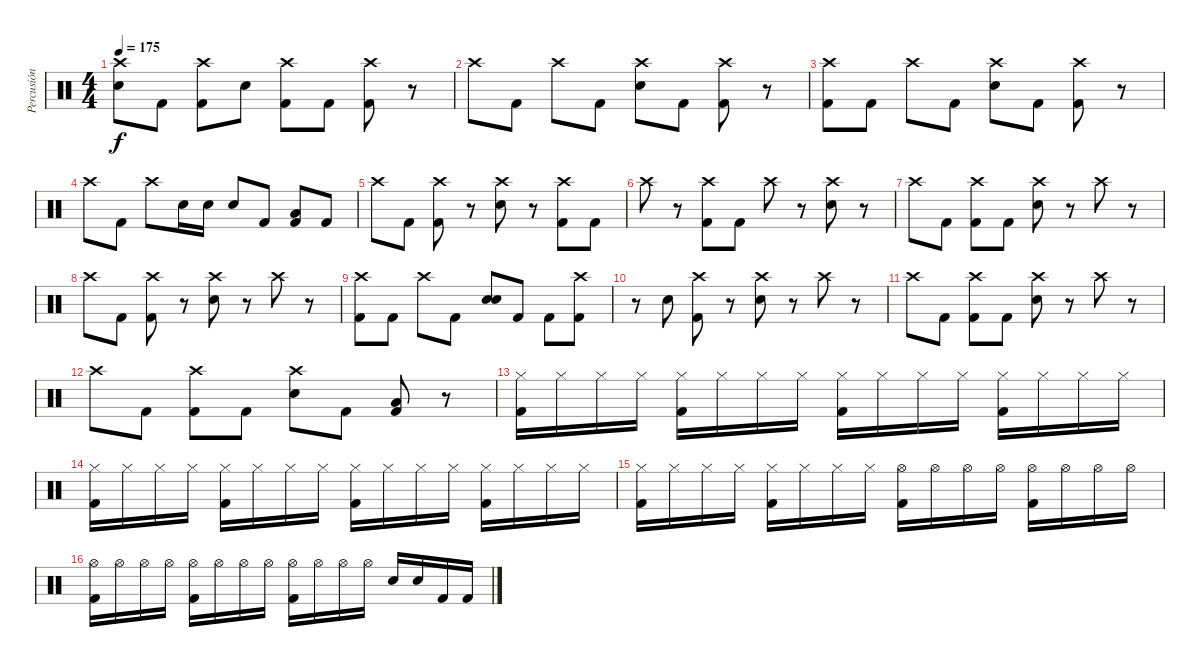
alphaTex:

\track ("Percusión" "Percusión") {instrument percussion}
\staff {score}
\articulation defaults
\ts (4 4)
\tempo 175
\clef neutral
\ks c
("Crash high (hit)" "Electric Snare (hit)").8{dy f} "Kick (hit) 2".8 ("Crash high (hit)" "Kick (hit) 2").8 "Electric Snare (hit)".8 ("Crash high (hit)" "Kick (hit) 2").8 "Kick (hit) 2".8 ("Crash high (hit)" "Kick (hit) 2").8 r.8 |
"Crash high (hit)".8 "Kick (hit) 2".8 "Crash high (hit)".8 "Kick (hit) 2".8 ("Crash high (hit)" "Electric Snare (hit)").8 "Kick (hit) 2".8 ("Crash high (hit)" "Kick (hit) 2").8 r.8 |
("Crash high (hit)" "Kick (hit) 2").8 "Kick (hit) 2".8 "Crash high (hit)".8 "Kick (hit) 2".8 ("Crash high (hit)" "Electric Snare (hit)").8 "Kick (hit) 2".8 ("Crash high (hit)" "Kick (hit) 2").8 r.8 |
"Crash high (hit)".8 "Kick (hit) 2".8 "Crash high (hit)".8 "Electric Snare (hit)".16 "Electric Snare (hit)".16 "Electric Snare (hit)".8 "Kick (hit) 2".8 ("Low Tom (hit)" "Kick (hit) 2").8 "Kick (hit) 2".8 |
"Crash high (hit)".8 "Kick (hit) 2".8 ("Crash high (hit)" "Kick (hit) 2").8 r.8 ("Crash high (hit)" "Electric Snare (hit)").8 r.8 ("Crash high (hit)" "Kick (hit) 2").8 "Kick (hit) 2".8 |
"Crash high (hit)".8 r.8 ("Crash high (hit)" "Kick (hit) 2").8 "Kick (hit) 2".8 "Crash high (hit)".8 r.8 ("Crash high (hit)" "Electric Snare (hit)").8 r.8 |
"Crash high (hit)".8 "Kick (hit) 2".8 ("Crash high (hit)" "Kick (hit) 2").8 "Kick (hit) 2".8 ("Crash high (hit)" "Electric Snare (hit)").8 r.8 "Crash high (hit)".8 r.8 |
"Crash high (hit)".8 "Kick (hit) 2".8 ("Crash high (hit)" "Kick (hit) 2").8 r.8 ("Crash high (hit)" "Electric Snare (hit)").8 r.8 "Crash high (hit)".8 r.8 |
("Crash high (hit)" "Kick (hit) 2").8 "Kick (hit) 2".8 "Crash high (hit)".8 "Kick (hit) 2".8 ("Electric Snare (hit)" "Electric Snare (hit)").8{bu 60} "Kick (hit) 2".8 "Kick (hit) 2".8 ("Crash high (hit)" "Kick (hit) 2").8 |
r.8 "Electric Snare (hit)".8 ("Crash high (hit)" "Kick (hit) 2").8 r.8 ("Crash high (hit)" "Electric Snare (hit)").8 r.8 "Crash high (hit)".8 r.8 |
"Crash high (hit)".8 "Kick (hit) 2".8 ("Crash high (hit)" "Kick (hit) 2").8 "Kick (hit) 2".8 ("Crash high (hit)" "Electric Snare (hit)").8 r.8 "Crash high (hit)".8 r.8 |
"Crash high (hit)".8 "Kick (hit) 2".8 ("Crash high (hit)" "Kick (hit) 2").8 "Kick (hit) 2".8 ("Crash high (hit)" "Electric Snare (hit)").8 "Kick (hit) 2".8 ("Low Tom (hit)" "Kick (hit) 2").8 r.8 |
("Hi-Hat (closed)" "Kick (hit) 2").16 "Hi-Hat (closed)".16 "Hi-Hat (closed)".16 "Hi-Hat (closed)".16 ("Hi-Hat (closed)" "Kick (hit) 2").16 "Hi-Hat (closed)".16 "Hi-Hat (closed)".16 "Hi-Hat (closed)".16 ("Hi-Hat (closed)" "Kick (hit) 2").16 "Hi-Hat (closed)".16 "Hi-Hat (closed)".16 "Hi-Hat (closed)".16 ("Hi-Hat (closed)" "Kick (hit) 2").16 "Hi-Hat (closed)".16 "Hi-Hat (closed)".16 "Hi-Hat (closed)".16 |
("Hi-Hat (closed)" "Kick (hit) 2").16 "Hi-Hat (closed)".16 "Hi-Hat (closed)".16 "Hi-Hat (closed)".16 ("Hi-Hat (closed)" "Kick (hit) 2").16 "Hi-Hat (closed)".16 "Hi-Hat (closed)".16 "Hi-Hat (closed)".16 ("Hi-Hat (closed)" "Kick (hit) 2").16 "Hi-Hat (closed)".16 "Hi-Hat (closed)".16 "Hi-Hat (closed)".16 ("Hi-Hat (closed)" "Kick (hit) 2").16 "Hi-Hat (closed)".16 "Hi-Hat (closed)".16 "Hi-Hat (closed)".16 |
("Hi-Hat (closed)" "Kick (hit) 2").16 "Hi-Hat (closed)".16 "Hi-Hat (closed)".16 "Hi-Hat (closed)".16 ("Hi-Hat (closed)" "Kick (hit) 2").16 "Hi-Hat (closed)".16 "Hi-Hat (closed)".16 "Hi-Hat (closed)".16 ("Hi-Hat (open)" "Kick (hit) 2").16 "Hi-Hat (open)".16 "Hi-Hat (open)".16 "Hi-Hat (open)".16 ("Hi-Hat (open)" "Kick (hit) 2").16 "Hi-Hat (open)".16 "Hi-Hat (open)".16 "Hi-Hat (open)".16 |
("Hi-Hat (open)" "Kick (hit) 2").16 "Hi-Hat (open)".16 "Hi-Hat (open)".16 "Hi-Hat (open)".16 ("Hi-Hat (open)" "Kick (hit) 2").16 "Hi-Hat (open)".16 "Hi-Hat (open)".16 "Hi-Hat (open)".16 ("Hi-Hat (open)" "Kick (hit) 2").16 "Hi-Hat (open)".16 "Hi-Hat (open)".16 "Hi-Hat (open)".16 "Electric Snare (hit)".16 "Electric Snare (hit)".16 "Kick (hit) 2".16 "Kick (hit) 2".16
